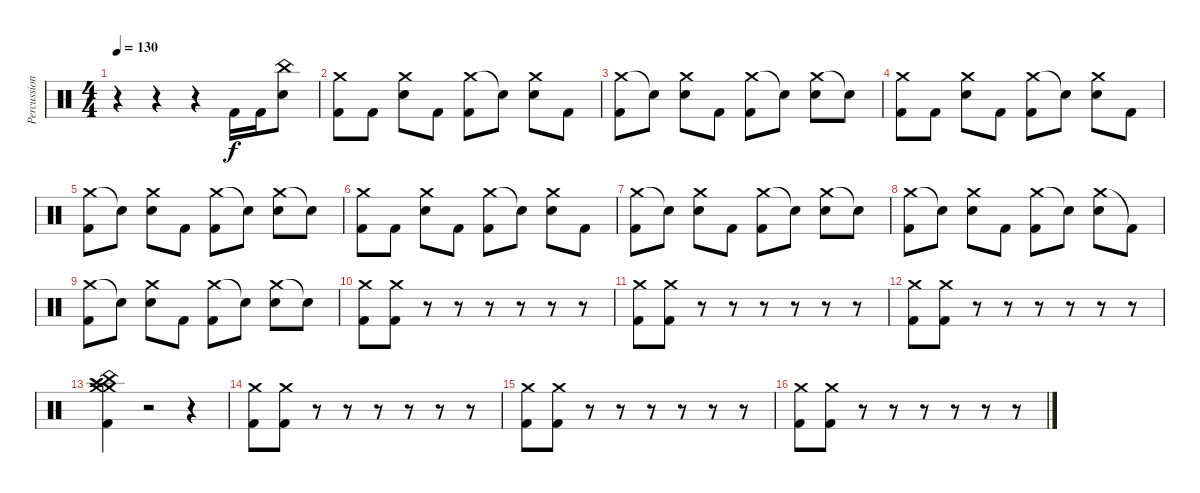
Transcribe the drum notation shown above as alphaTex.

\track ("Percussion" "Percussion") {instrument percussion}
\staff {score}
\articulation defaults
\ts (4 4)
\tempo 130
\clef neutral
\ks c
r.4{dy f} r.4 r.4 "Kick (hit) 2".16 "Kick (hit) 2".16 ("China (hit)" "Electric Snare (hit)").8 |
("Crash medium (hit)" "Kick (hit) 2").8 "Kick (hit) 2".8 ("Crash medium (hit)" "Electric Snare (hit)").8 "Kick (hit) 2".8 ("Crash medium (hit)" "Kick (hit) 2").8 "Snare (hit)"{t}.8 ("Crash medium (hit)" "Electric Snare (hit)").8 "Kick (hit) 2".8 |
("Crash medium (hit)" "Kick (hit) 2").8 "Snare (hit)"{t}.8 ("Crash medium (hit)" "Electric Snare (hit)").8 "Kick (hit) 2".8 ("Crash medium (hit)" "Kick (hit) 2").8 "Snare (hit)"{t}.8 ("Crash medium (hit)" "Electric Snare (hit)").8 "Snare (hit)"{t}.8 |
("Crash medium (hit)" "Kick (hit) 2").8 "Kick (hit) 2".8 ("Crash medium (hit)" "Electric Snare (hit)").8 "Kick (hit) 2".8 ("Crash medium (hit)" "Kick (hit) 2").8 "Snare (hit)"{t}.8 ("Crash medium (hit)" "Electric Snare (hit)").8 "Kick (hit) 2".8 |
("Crash medium (hit)" "Kick (hit) 2").8 "Snare (hit)"{t}.8 ("Crash medium (hit)" "Electric Snare (hit)").8 "Kick (hit) 2".8 ("Crash medium (hit)" "Kick (hit) 2").8 "Snare (hit)"{t}.8 ("Crash medium (hit)" "Electric Snare (hit)").8 "Snare (hit)"{t}.8 |
("Crash medium (hit)" "Kick (hit) 2").8 "Kick (hit) 2".8 ("Crash medium (hit)" "Electric Snare (hit)").8 "Kick (hit) 2".8 ("Crash medium (hit)" "Kick (hit) 2").8 "Snare (hit)"{t}.8 ("Crash medium (hit)" "Electric Snare (hit)").8 "Kick (hit) 2".8 |
("Crash medium (hit)" "Kick (hit) 2").8 "Snare (hit)"{t}.8 ("Crash medium (hit)" "Electric Snare (hit)").8 "Kick (hit) 2".8 ("Crash medium (hit)" "Kick (hit) 2").8 "Snare (hit)"{t}.8 ("Crash medium (hit)" "Electric Snare (hit)").8 "Snare (hit)"{t}.8 |
("Crash medium (hit)" "Kick (hit) 2").8 "Snare (hit)"{t}.8 ("Crash medium (hit)" "Electric Snare (hit)").8 "Kick (hit) 2".8 ("Crash medium (hit)" "Kick (hit) 2").8 "Snare (hit)"{t}.8 ("Crash medium (hit)" "Electric Snare (hit)").8 "Kick (hit) 2"{t}.8 |
("Crash medium (hit)" "Kick (hit) 2").8 "Electric Snare (hit)"{t}.8 ("Crash medium (hit)" "Electric Snare (hit)").8 "Kick (hit) 2".8 ("Crash medium (hit)" "Kick (hit) 2").8 "Electric Snare (hit)"{t}.8 ("Crash medium (hit)" "Electric Snare (hit)").8 "Snare (hit)"{t}.8 |
("Crash medium (hit)" "Kick (hit) 2").8 ("Crash medium (hit)" "Kick (hit) 2").8 r.8 r.8 r.8 r.8 r.8 r.8 |
("Crash medium (hit)" "Kick (hit) 2").8 ("Crash medium (hit)" "Kick (hit) 2").8 r.8 r.8 r.8 r.8 r.8 r.8 |
("Crash medium (hit)" "Kick (hit) 2").8 ("Crash medium (hit)" "Kick (hit) 2").8 r.8 r.8 r.8 r.8 r.8 r.8 |
("Crash medium (hit)" "Splash (hit)" "China (hit)" "Crash high (hit)" "Crash medium (hit)" "Kick (hit) 2").4 r.2 r.4 |
("Crash medium (hit)" "Kick (hit) 2").8 ("Crash medium (hit)" "Kick (hit) 2").8 r.8 r.8 r.8 r.8 r.8 r.8 |
("Crash medium (hit)" "Kick (hit) 2").8 ("Crash medium (hit)" "Kick (hit) 2").8 r.8 r.8 r.8 r.8 r.8 r.8 |
("Crash medium (hit)" "Kick (hit) 2").8 ("Crash medium (hit)" "Kick (hit) 2").8 r.8 r.8 r.8 r.8 r.8 r.8
